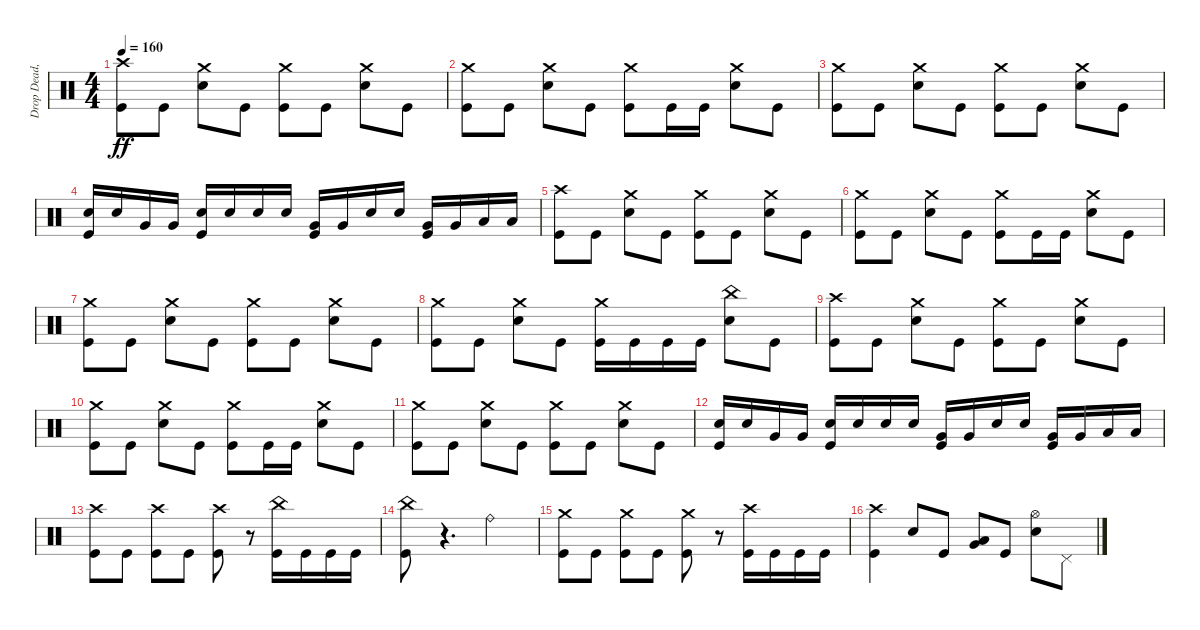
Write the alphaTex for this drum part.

\track ("Drop Dead, Johnny" "Drop Dead,") {instrument percussion}
\staff {score}
\articulation defaults
\ts (4 4)
\tempo 160
\clef neutral
\ks c
("Crash high (hit)" "Kick (hit)").8{dy ff} "Kick (hit)".8 ("Crash medium (hit)" "Electric Snare (hit)").8 "Kick (hit)".8 ("Crash medium (hit)" "Kick (hit)").8 "Kick (hit)".8 ("Crash medium (hit)" "Electric Snare (hit)").8 "Kick (hit)".8 |
("Crash medium (hit)" "Kick (hit)").8 "Kick (hit)".8 ("Crash medium (hit)" "Electric Snare (hit)").8 "Kick (hit)".8 ("Crash medium (hit)" "Kick (hit)").8 "Kick (hit)".16 "Kick (hit)".16 ("Crash medium (hit)" "Electric Snare (hit)").8 "Kick (hit)".8 |
("Crash medium (hit)" "Kick (hit)").8 "Kick (hit)".8 ("Crash medium (hit)" "Electric Snare (hit)").8 "Kick (hit)".8 ("Crash medium (hit)" "Kick (hit)").8 "Kick (hit)".8 ("Crash medium (hit)" "Electric Snare (hit)").8 "Kick (hit)".8 |
("Electric Snare (hit)" "Kick (hit)").16 "Electric Snare (hit)".16 "Very Low Tom (hit)".16 "Very Low Tom (hit)".16 ("Electric Snare (hit)" "Kick (hit)").16 "Electric Snare (hit)".16 "Electric Snare (hit)".16 "Electric Snare (hit)".16 ("Very Low Tom (hit)" "Kick (hit)").16 "Very Low Tom (hit)".16 "Electric Snare (hit)".16 "Electric Snare (hit)".16 ("Very Low Tom (hit)" "Kick (hit)").16 "Very Low Tom (hit)".16 "Low Floor Tom (hit)".16 "Low Floor Tom (hit)".16 |
("Crash high (hit)" "Kick (hit)").8 "Kick (hit)".8 ("Crash medium (hit)" "Electric Snare (hit)").8 "Kick (hit)".8 ("Crash medium (hit)" "Kick (hit)").8 "Kick (hit)".8 ("Crash medium (hit)" "Electric Snare (hit)").8 "Kick (hit)".8 |
("Crash medium (hit)" "Kick (hit)").8 "Kick (hit)".8 ("Crash medium (hit)" "Electric Snare (hit)").8 "Kick (hit)".8 ("Crash medium (hit)" "Kick (hit)").8 "Kick (hit)".16 "Kick (hit)".16 ("Crash medium (hit)" "Electric Snare (hit)").8 "Kick (hit)".8 |
("Crash medium (hit)" "Kick (hit)").8 "Kick (hit)".8 ("Crash medium (hit)" "Electric Snare (hit)").8 "Kick (hit)".8 ("Crash medium (hit)" "Kick (hit)").8 "Kick (hit)".8 ("Crash medium (hit)" "Electric Snare (hit)").8 "Kick (hit)".8 |
("Crash medium (hit)" "Kick (hit)").8 "Kick (hit)".8 ("Crash medium (hit)" "Electric Snare (hit)").8 "Kick (hit)".8 ("Crash medium (hit)" "Kick (hit)").16 "Kick (hit)".16 "Kick (hit)".16 "Kick (hit)".16 ("China (hit)" "Electric Snare (hit)").8 "Kick (hit)".8 |
("Crash high (hit)" "Kick (hit)").8 "Kick (hit)".8 ("Crash medium (hit)" "Electric Snare (hit)").8 "Kick (hit)".8 ("Crash medium (hit)" "Kick (hit)").8 "Kick (hit)".8 ("Crash medium (hit)" "Electric Snare (hit)").8 "Kick (hit)".8 |
("Crash medium (hit)" "Kick (hit)").8 "Kick (hit)".8 ("Crash medium (hit)" "Electric Snare (hit)").8 "Kick (hit)".8 ("Crash medium (hit)" "Kick (hit)").8 "Kick (hit)".16 "Kick (hit)".16 ("Crash medium (hit)" "Electric Snare (hit)").8 "Kick (hit)".8 |
("Crash medium (hit)" "Kick (hit)").8 "Kick (hit)".8 ("Crash medium (hit)" "Electric Snare (hit)").8 "Kick (hit)".8 ("Crash medium (hit)" "Kick (hit)").8 "Kick (hit)".8 ("Crash medium (hit)" "Electric Snare (hit)").8 "Kick (hit)".8 |
("Electric Snare (hit)" "Kick (hit)").16 "Electric Snare (hit)".16 "Very Low Tom (hit)".16 "Very Low Tom (hit)".16 ("Electric Snare (hit)" "Kick (hit)").16 "Electric Snare (hit)".16 "Electric Snare (hit)".16 "Electric Snare (hit)".16 ("Very Low Tom (hit)" "Kick (hit)").16 "Very Low Tom (hit)".16 "Electric Snare (hit)".16 "Electric Snare (hit)".16 ("Very Low Tom (hit)" "Kick (hit)").16 "Very Low Tom (hit)".16 "Low Floor Tom (hit)".16 "Low Floor Tom (hit)".16 |
("Crash high (hit)" "Kick (hit)").8 "Kick (hit)".8 ("Crash high (hit)" "Kick (hit)").8 "Kick (hit)".8 ("Crash high (hit)" "Kick (hit)").8 r.8{volume 0} ("China (hit)" "Kick (hit)").16{volume 16} "Kick (hit)".16 "Kick (hit)".16 "Kick (hit)".16 |
("China (hit)" "Kick (hit)").8 r.4{d volume 0} "Ride (bell)".2{volume 16} |
("Crash medium (hit)" "Kick (hit)").8 "Kick (hit)".8 ("Crash medium (hit)" "Kick (hit)").8 "Kick (hit)".8 ("Crash medium (hit)" "Kick (hit)").8 r.8{volume 0} ("Crash high (hit)" "Kick (hit)").16{volume 16} "Kick (hit)".16 "Kick (hit)".16 "Kick (hit)".16 |
("Crash high (hit)" "Kick (hit)").4 "Electric Snare (hit)".8 "Kick (hit)".8 ("Very Low Tom (hit)" "Low Floor Tom (hit)").8 "Kick (hit)".8 ("Hi-Hat (open)" "Electric Snare (hit)").8 "Pedal Hi-Hat (hit)".8
